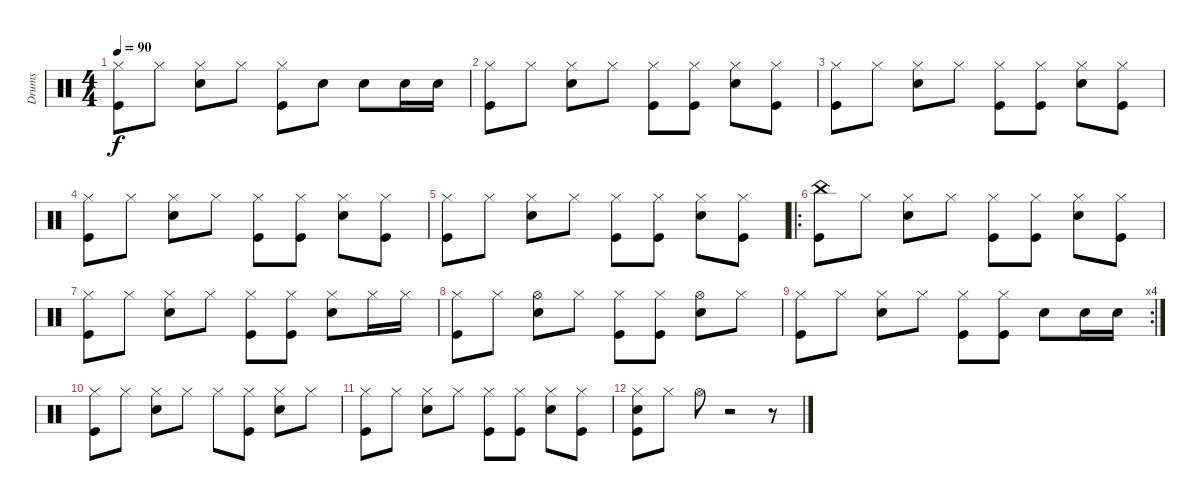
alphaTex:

\track ("Drums" "Drums") {instrument percussion}
\staff {score}
\articulation defaults
\ts (4 4)
\tempo 90
\clef neutral
\ks c
("Hi-Hat (closed)" "Kick (hit)").8{dy f} "Hi-Hat (closed)".8 ("Snare (hit) 2" "Hi-Hat (closed)").8 "Hi-Hat (closed)".8 ("Kick (hit)" "Hi-Hat (closed)").8 "Snare (hit) 2".8 "Snare (hit) 2".8 "Snare (hit) 2".16 "Snare (hit) 2".16 |
("Kick (hit)" "Hi-Hat (closed)").8 "Hi-Hat (closed)".8 ("Snare (hit) 2" "Hi-Hat (closed)").8 "Hi-Hat (closed)".8 ("Kick (hit)" "Hi-Hat (closed)").8 ("Kick (hit)" "Hi-Hat (closed)").8 ("Snare (hit) 2" "Hi-Hat (closed)").8 ("Kick (hit)" "Hi-Hat (closed)").8 |
("Kick (hit)" "Hi-Hat (closed)").8 "Hi-Hat (closed)".8 ("Snare (hit) 2" "Hi-Hat (closed)").8 "Hi-Hat (closed)".8 ("Kick (hit)" "Hi-Hat (closed)").8 ("Kick (hit)" "Hi-Hat (closed)").8 ("Snare (hit) 2" "Hi-Hat (closed)").8 ("Kick (hit)" "Hi-Hat (closed)").8 |
("Kick (hit)" "Hi-Hat (closed)").8 "Hi-Hat (closed)".8 ("Snare (hit) 2" "Hi-Hat (closed)").8 "Hi-Hat (closed)".8 ("Kick (hit)" "Hi-Hat (closed)").8 ("Kick (hit)" "Hi-Hat (closed)").8 ("Snare (hit) 2" "Hi-Hat (closed)").8 ("Kick (hit)" "Hi-Hat (closed)").8 |
("Kick (hit)" "Hi-Hat (closed)").8 "Hi-Hat (closed)".8 ("Snare (hit) 2" "Hi-Hat (closed)").8 "Hi-Hat (closed)".8 ("Kick (hit)" "Hi-Hat (closed)").8 ("Kick (hit)" "Hi-Hat (closed)").8 ("Snare (hit) 2" "Hi-Hat (closed)").8 ("Kick (hit)" "Hi-Hat (closed)").8 |
\ro
("Kick (hit)" "China (hit)").8 "Hi-Hat (closed)".8 ("Snare (hit) 2" "Hi-Hat (closed)").8 "Hi-Hat (closed)".8 ("Kick (hit)" "Hi-Hat (closed)").8 ("Kick (hit)" "Hi-Hat (closed)").8 ("Snare (hit) 2" "Hi-Hat (closed)").8 ("Kick (hit)" "Hi-Hat (closed)").8 |
("Kick (hit)" "Hi-Hat (closed)").8 "Hi-Hat (closed)".8 ("Snare (hit) 2" "Hi-Hat (closed)").8 "Hi-Hat (closed)".8 ("Kick (hit)" "Hi-Hat (closed)").8 ("Kick (hit)" "Hi-Hat (closed)").8 ("Snare (hit) 2" "Hi-Hat (closed)").8 "Hi-Hat (closed)".16 "Hi-Hat (closed)".16 |
("Kick (hit)" "Hi-Hat (closed)").8 "Hi-Hat (closed)".8 ("Snare (hit) 2" "Hi-Hat (open)").8 "Hi-Hat (closed)".8 ("Kick (hit)" "Hi-Hat (closed)").8 ("Kick (hit)" "Hi-Hat (closed)").8 ("Snare (hit) 2" "Hi-Hat (open)").8 "Hi-Hat (closed)".8 |
\rc 4
("Kick (hit)" "Hi-Hat (closed)").8 "Hi-Hat (closed)".8 ("Snare (hit) 2" "Hi-Hat (closed)").8 "Hi-Hat (closed)".8 ("Kick (hit)" "Hi-Hat (closed)").8 ("Kick (hit)" "Hi-Hat (closed)").8 "Snare (hit) 2".8 "Snare (hit) 2".16 "Snare (hit) 2".16 |
("Kick (hit)" "Hi-Hat (closed)").8 "Hi-Hat (closed)".8 ("Snare (hit) 2" "Hi-Hat (closed)").8 "Hi-Hat (closed)".8 "Hi-Hat (closed)".8 ("Kick (hit)" "Hi-Hat (closed)").8 ("Snare (hit) 2" "Hi-Hat (closed)").8 "Hi-Hat (closed)".8 |
("Kick (hit)" "Hi-Hat (closed)").8 "Hi-Hat (closed)".8 ("Snare (hit) 2" "Hi-Hat (closed)").8 "Hi-Hat (closed)".8 ("Kick (hit)" "Hi-Hat (closed)").8 ("Kick (hit)" "Hi-Hat (closed)").8 ("Snare (hit) 2" "Hi-Hat (closed)").8 ("Kick (hit)" "Hi-Hat (closed)").8 |
("Snare (hit) 2" "Kick (hit)" "Hi-Hat (closed)").8 "Hi-Hat (closed)".8 "Hi-Hat (open)".8 r.2 r.8
